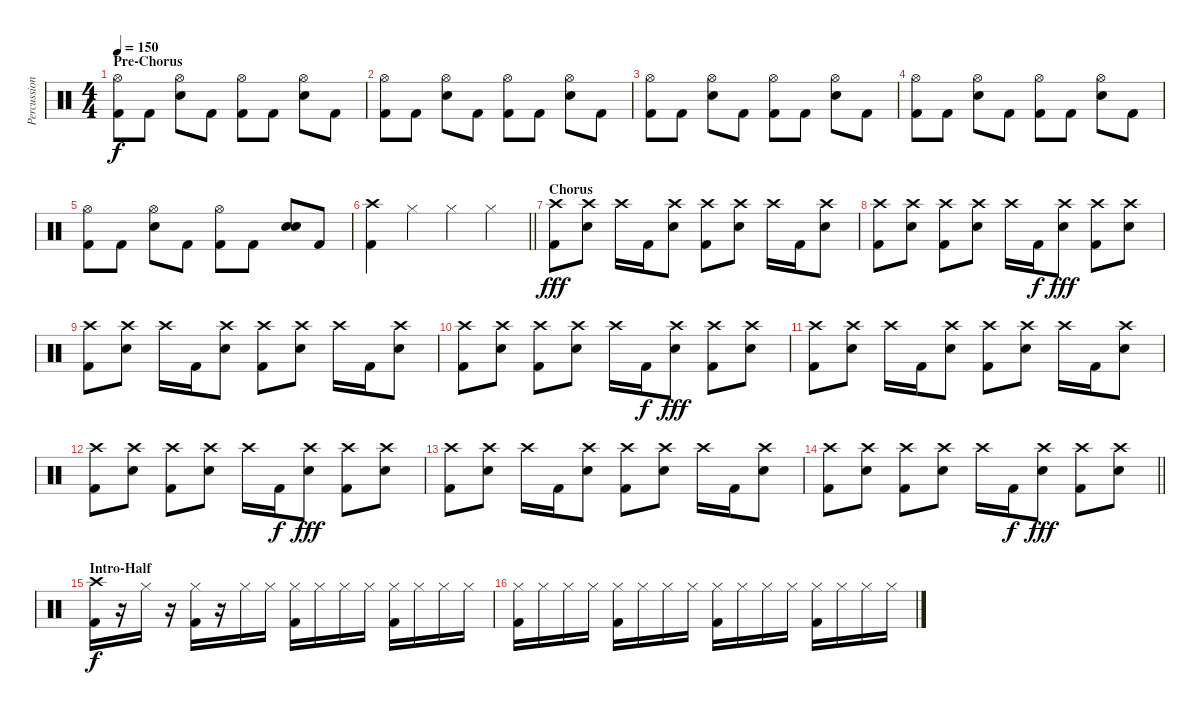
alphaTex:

\track ("Percussion" "Percussion") {instrument percussion}
\staff {score}
\articulation defaults
\ts (4 4)
\section ("" "Pre-Chorus")
\tempo 150
\clef neutral
\ks c
("Hi-Hat (open)" "Kick (hit) 2").8{dy f} "Kick (hit) 2".8 ("Hi-Hat (open)" "Snare (hit) 2").8 "Kick (hit) 2".8 ("Hi-Hat (open)" "Kick (hit) 2").8 "Kick (hit) 2".8 ("Hi-Hat (open)" "Snare (hit) 2").8 "Kick (hit) 2".8 |
("Hi-Hat (open)" "Kick (hit) 2").8 "Kick (hit) 2".8 ("Hi-Hat (open)" "Snare (hit) 2").8 "Kick (hit) 2".8 ("Hi-Hat (open)" "Kick (hit) 2").8 "Kick (hit) 2".8 ("Hi-Hat (open)" "Snare (hit) 2").8 "Kick (hit) 2".8 |
("Hi-Hat (open)" "Kick (hit) 2").8 "Kick (hit) 2".8 ("Hi-Hat (open)" "Snare (hit) 2").8 "Kick (hit) 2".8 ("Hi-Hat (open)" "Kick (hit) 2").8 "Kick (hit) 2".8 ("Hi-Hat (open)" "Snare (hit) 2").8 "Kick (hit) 2".8 |
("Hi-Hat (open)" "Kick (hit) 2").8 "Kick (hit) 2".8 ("Hi-Hat (open)" "Snare (hit) 2").8 "Kick (hit) 2".8 ("Hi-Hat (open)" "Kick (hit) 2").8 "Kick (hit) 2".8 ("Hi-Hat (open)" "Snare (hit) 2").8 "Kick (hit) 2".8 |
("Hi-Hat (open)" "Kick (hit) 2").8 "Kick (hit) 2".8 ("Hi-Hat (open)" "Snare (hit) 2").8 "Kick (hit) 2".8 ("Hi-Hat (open)" "Kick (hit) 2").8 "Kick (hit) 2".8 ("Snare (hit) 2" "Snare (hit) 2").8{bu 240} "Kick (hit) 2".8 |
\barLineRight lightlight
("Crash high (hit)" "Kick (hit) 2").4 "Hi-Hat (closed)".4 "Hi-Hat (closed)".4 "Hi-Hat (closed)".4 |
\section ("" "Chorus")
("Crash high (hit)" "Kick (hit) 2").8{dy fff} ("Crash high (hit)" "Snare (hit) 2").8 "Crash high (hit)".16 "Kick (hit) 2".16 ("Crash high (hit)" "Snare (hit) 2").8 ("Crash high (hit)" "Kick (hit) 2").8 ("Crash high (hit)" "Snare (hit) 2").8 "Crash high (hit)".16 "Kick (hit) 2".16 ("Crash high (hit)" "Snare (hit) 2").8 |
("Crash high (hit)" "Kick (hit) 2").8 ("Crash high (hit)" "Snare (hit) 2").8 ("Crash high (hit)" "Kick (hit) 2").8 ("Crash high (hit)" "Snare (hit) 2").8 "Crash high (hit)".16 "Kick (hit) 2".16{dy f} ("Crash high (hit)" "Snare (hit) 2").8{dy fff} ("Crash high (hit)" "Kick (hit) 2").8 ("Crash high (hit)" "Snare (hit) 2").8 |
("Crash high (hit)" "Kick (hit) 2").8 ("Crash high (hit)" "Snare (hit) 2").8 "Crash high (hit)".16 "Kick (hit) 2".16 ("Crash high (hit)" "Snare (hit) 2").8 ("Crash high (hit)" "Kick (hit) 2").8 ("Crash high (hit)" "Snare (hit) 2").8 "Crash high (hit)".16 "Kick (hit) 2".16 ("Crash high (hit)" "Snare (hit) 2").8 |
("Crash high (hit)" "Kick (hit) 2").8 ("Crash high (hit)" "Snare (hit) 2").8 ("Crash high (hit)" "Kick (hit) 2").8 ("Crash high (hit)" "Snare (hit) 2").8 "Crash high (hit)".16 "Kick (hit) 2".16{dy f} ("Crash high (hit)" "Snare (hit) 2").8{dy fff} ("Crash high (hit)" "Kick (hit) 2").8 ("Crash high (hit)" "Snare (hit) 2").8 |
("Crash high (hit)" "Kick (hit) 2").8 ("Crash high (hit)" "Snare (hit) 2").8 "Crash high (hit)".16 "Kick (hit) 2".16 ("Crash high (hit)" "Snare (hit) 2").8 ("Crash high (hit)" "Kick (hit) 2").8 ("Crash high (hit)" "Snare (hit) 2").8 "Crash high (hit)".16 "Kick (hit) 2".16 ("Crash high (hit)" "Snare (hit) 2").8 |
("Crash high (hit)" "Kick (hit) 2").8 ("Crash high (hit)" "Snare (hit) 2").8 ("Crash high (hit)" "Kick (hit) 2").8 ("Crash high (hit)" "Snare (hit) 2").8 "Crash high (hit)".16 "Kick (hit) 2".16{dy f} ("Crash high (hit)" "Snare (hit) 2").8{dy fff} ("Crash high (hit)" "Kick (hit) 2").8 ("Crash high (hit)" "Snare (hit) 2").8 |
("Crash high (hit)" "Kick (hit) 2").8 ("Crash high (hit)" "Snare (hit) 2").8 "Crash high (hit)".16 "Kick (hit) 2".16 ("Crash high (hit)" "Snare (hit) 2").8 ("Crash high (hit)" "Kick (hit) 2").8 ("Crash high (hit)" "Snare (hit) 2").8 "Crash high (hit)".16 "Kick (hit) 2".16 ("Crash high (hit)" "Snare (hit) 2").8 |
\barLineRight lightlight
("Crash high (hit)" "Kick (hit) 2").8 ("Crash high (hit)" "Snare (hit) 2").8 ("Crash high (hit)" "Kick (hit) 2").8 ("Crash high (hit)" "Snare (hit) 2").8 "Crash high (hit)".16 "Kick (hit) 2".16{dy f} ("Crash high (hit)" "Snare (hit) 2").8{dy fff} ("Crash high (hit)" "Kick (hit) 2").8 ("Crash high (hit)" "Snare (hit) 2").8 |
\section ("" "Intro-Half")
("Crash high (hit)" "Kick (hit) 2").16{dy f} r.16 "Hi-Hat (closed)".16 r.16 ("Hi-Hat (closed)" "Kick (hit) 2").16 r.16 "Hi-Hat (closed)".16 "Hi-Hat (closed)".16 ("Hi-Hat (closed)" "Kick (hit) 2").16 "Hi-Hat (closed)".16 "Hi-Hat (closed)".16 "Hi-Hat (closed)".16 ("Hi-Hat (closed)" "Kick (hit) 2").16 "Hi-Hat (closed)".16 "Hi-Hat (closed)".16 "Hi-Hat (closed)".16 |
("Hi-Hat (closed)" "Kick (hit) 2").16 "Hi-Hat (closed)".16 "Hi-Hat (closed)".16 "Hi-Hat (closed)".16 ("Hi-Hat (closed)" "Kick (hit) 2").16 "Hi-Hat (closed)".16 "Hi-Hat (closed)".16 "Hi-Hat (closed)".16 ("Hi-Hat (closed)" "Kick (hit) 2").16 "Hi-Hat (closed)".16 "Hi-Hat (closed)".16 "Hi-Hat (closed)".16 ("Hi-Hat (closed)" "Kick (hit) 2").16 "Hi-Hat (closed)".16 "Hi-Hat (closed)".16 "Hi-Hat (closed)".16
